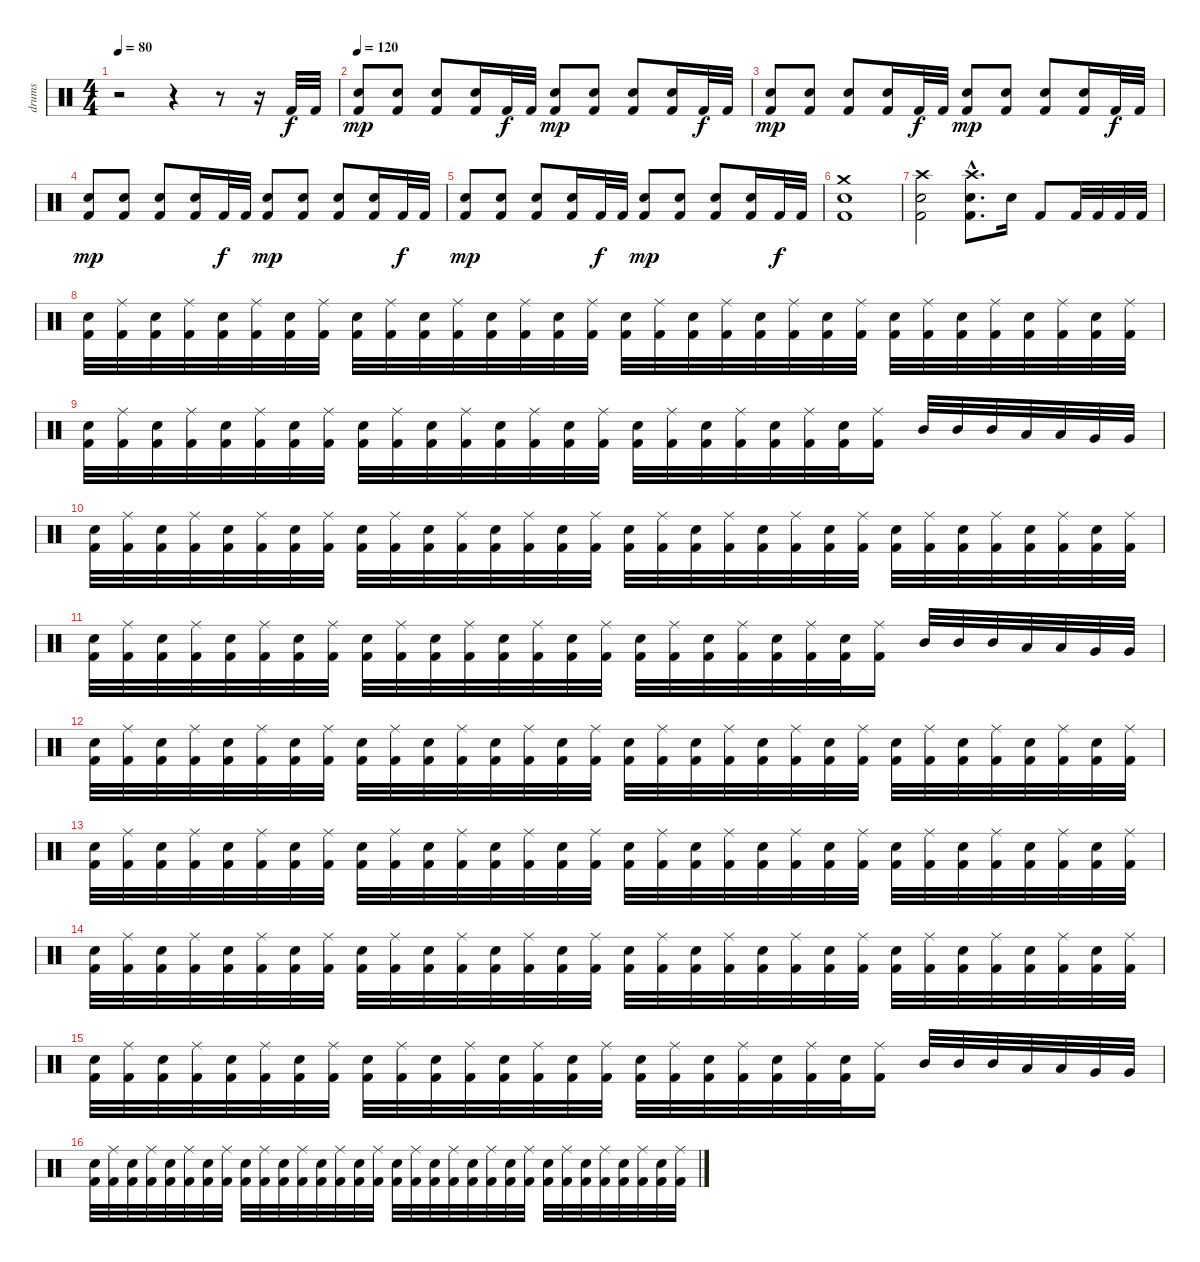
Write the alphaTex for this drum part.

\track ("drums" "drums") {instrument percussion}
\staff {score}
\articulation defaults
\ts (4 4)
\tempo 80
\clef neutral
\ks c
r.2{dy f} r.4 r.8 r.16 "Kick (hit) 2".32 "Kick (hit) 2".32 |
\tempo 120
("Electric Snare (hit)" "Kick (hit) 2").8{dy mp} ("Electric Snare (hit)" "Kick (hit) 2").8 ("Electric Snare (hit)" "Kick (hit) 2").8 ("Electric Snare (hit)" "Kick (hit) 2").16 "Kick (hit) 2".32{dy f} "Kick (hit) 2".32 ("Electric Snare (hit)" "Kick (hit) 2").8{dy mp} ("Electric Snare (hit)" "Kick (hit) 2").8 ("Electric Snare (hit)" "Kick (hit) 2").8 ("Electric Snare (hit)" "Kick (hit) 2").16 "Kick (hit) 2".32{dy f} "Kick (hit) 2".32 |
("Electric Snare (hit)" "Kick (hit) 2").8{dy mp} ("Electric Snare (hit)" "Kick (hit) 2").8 ("Electric Snare (hit)" "Kick (hit) 2").8 ("Electric Snare (hit)" "Kick (hit) 2").16 "Kick (hit) 2".32{dy f} "Kick (hit) 2".32 ("Electric Snare (hit)" "Kick (hit) 2").8{dy mp} ("Electric Snare (hit)" "Kick (hit) 2").8 ("Electric Snare (hit)" "Kick (hit) 2").8 ("Electric Snare (hit)" "Kick (hit) 2").16 "Kick (hit) 2".32{dy f} "Kick (hit) 2".32 |
("Electric Snare (hit)" "Kick (hit) 2").8{dy mp} ("Electric Snare (hit)" "Kick (hit) 2").8 ("Electric Snare (hit)" "Kick (hit) 2").8 ("Electric Snare (hit)" "Kick (hit) 2").16 "Kick (hit) 2".32{dy f} "Kick (hit) 2".32 ("Electric Snare (hit)" "Kick (hit) 2").8{dy mp} ("Electric Snare (hit)" "Kick (hit) 2").8 ("Electric Snare (hit)" "Kick (hit) 2").8 ("Electric Snare (hit)" "Kick (hit) 2").16 "Kick (hit) 2".32{dy f} "Kick (hit) 2".32 |
("Electric Snare (hit)" "Kick (hit) 2").8{dy mp} ("Electric Snare (hit)" "Kick (hit) 2").8 ("Electric Snare (hit)" "Kick (hit) 2").8 ("Electric Snare (hit)" "Kick (hit) 2").16 "Kick (hit) 2".32{dy f} "Kick (hit) 2".32 ("Electric Snare (hit)" "Kick (hit) 2").8{dy mp} ("Electric Snare (hit)" "Kick (hit) 2").8 ("Electric Snare (hit)" "Kick (hit) 2").8 ("Electric Snare (hit)" "Kick (hit) 2").16 "Kick (hit) 2".32{dy f} "Kick (hit) 2".32 |
("Crash medium (hit)" "Electric Snare (hit)" "Kick (hit) 2").1 |
("Crash high (hit)" "Electric Snare (hit)" "Kick (hit) 2").2 ("Crash high (hit)"{hac} "Electric Snare (hit)"{hac} "Kick (hit) 2"{hac}).8{d} "Electric Snare (hit)".16 "Kick (hit) 2".8 "Kick (hit) 2".32 "Kick (hit) 2".32 "Kick (hit) 2".32 "Kick (hit) 2".32 |
("Electric Snare (hit)" "Kick (hit) 2").32 ("Ride (middle)" "Kick (hit) 2").32 ("Electric Snare (hit)" "Kick (hit) 2").32 ("Ride (middle)" "Kick (hit) 2").32 ("Electric Snare (hit)" "Kick (hit) 2").32 ("Ride (middle)" "Kick (hit) 2").32 ("Electric Snare (hit)" "Kick (hit) 2").32 ("Ride (middle)" "Kick (hit) 2").32 ("Electric Snare (hit)" "Kick (hit) 2").32 ("Ride (middle)" "Kick (hit) 2").32 ("Electric Snare (hit)" "Kick (hit) 2").32 ("Ride (middle)" "Kick (hit) 2").32 ("Electric Snare (hit)" "Kick (hit) 2").32 ("Ride (middle)" "Kick (hit) 2").32 ("Electric Snare (hit)" "Kick (hit) 2").32 ("Ride (middle)" "Kick (hit) 2").32 ("Electric Snare (hit)" "Kick (hit) 2").32 ("Ride (middle)" "Kick (hit) 2").32 ("Electric Snare (hit)" "Kick (hit) 2").32 ("Ride (middle)" "Kick (hit) 2").32 ("Electric Snare (hit)" "Kick (hit) 2").32 ("Ride (middle)" "Kick (hit) 2").32 ("Electric Snare (hit)" "Kick (hit) 2").32 ("Ride (middle)" "Kick (hit) 2").32 ("Electric Snare (hit)" "Kick (hit) 2").32 ("Ride (middle)" "Kick (hit) 2").32 ("Electric Snare (hit)" "Kick (hit) 2").32 ("Ride (middle)" "Kick (hit) 2").32 ("Electric Snare (hit)" "Kick (hit) 2").32 ("Ride (middle)" "Kick (hit) 2").32 ("Electric Snare (hit)" "Kick (hit) 2").32 ("Ride (middle)" "Kick (hit) 2").32 |
("Electric Snare (hit)" "Kick (hit) 2").32 ("Ride (middle)" "Kick (hit) 2").32 ("Electric Snare (hit)" "Kick (hit) 2").32 ("Ride (middle)" "Kick (hit) 2").32 ("Electric Snare (hit)" "Kick (hit) 2").32 ("Ride (middle)" "Kick (hit) 2").32 ("Electric Snare (hit)" "Kick (hit) 2").32 ("Ride (middle)" "Kick (hit) 2").32 ("Electric Snare (hit)" "Kick (hit) 2").32 ("Ride (middle)" "Kick (hit) 2").32 ("Electric Snare (hit)" "Kick (hit) 2").32 ("Ride (middle)" "Kick (hit) 2").32 ("Electric Snare (hit)" "Kick (hit) 2").32 ("Ride (middle)" "Kick (hit) 2").32 ("Electric Snare (hit)" "Kick (hit) 2").32 ("Ride (middle)" "Kick (hit) 2").32 ("Electric Snare (hit)" "Kick (hit) 2").32 ("Ride (middle)" "Kick (hit) 2").32 ("Electric Snare (hit)" "Kick (hit) 2").32 ("Ride (middle)" "Kick (hit) 2").32 ("Electric Snare (hit)" "Kick (hit) 2").32 ("Ride (middle)" "Kick (hit) 2").32 ("Electric Snare (hit)" "Kick (hit) 2").32 ("Ride (middle)" "Kick (hit) 2").16 "Mid Tom (hit)".32 "Mid Tom (hit)".32 "Mid Tom (hit)".32 "Low Tom (hit)".32 "Low Tom (hit)".32 "Very Low Tom (hit)".32 "Very Low Tom (hit)".32 |
("Electric Snare (hit)" "Kick (hit) 2").32 ("Ride (middle)" "Kick (hit) 2").32 ("Electric Snare (hit)" "Kick (hit) 2").32 ("Ride (middle)" "Kick (hit) 2").32 ("Electric Snare (hit)" "Kick (hit) 2").32 ("Ride (middle)" "Kick (hit) 2").32 ("Electric Snare (hit)" "Kick (hit) 2").32 ("Ride (middle)" "Kick (hit) 2").32 ("Electric Snare (hit)" "Kick (hit) 2").32 ("Ride (middle)" "Kick (hit) 2").32 ("Electric Snare (hit)" "Kick (hit) 2").32 ("Ride (middle)" "Kick (hit) 2").32 ("Electric Snare (hit)" "Kick (hit) 2").32 ("Ride (middle)" "Kick (hit) 2").32 ("Electric Snare (hit)" "Kick (hit) 2").32 ("Ride (middle)" "Kick (hit) 2").32 ("Electric Snare (hit)" "Kick (hit) 2").32 ("Ride (middle)" "Kick (hit) 2").32 ("Electric Snare (hit)" "Kick (hit) 2").32 ("Ride (middle)" "Kick (hit) 2").32 ("Electric Snare (hit)" "Kick (hit) 2").32 ("Ride (middle)" "Kick (hit) 2").32 ("Electric Snare (hit)" "Kick (hit) 2").32 ("Ride (middle)" "Kick (hit) 2").32 ("Electric Snare (hit)" "Kick (hit) 2").32 ("Ride (middle)" "Kick (hit) 2").32 ("Electric Snare (hit)" "Kick (hit) 2").32 ("Ride (middle)" "Kick (hit) 2").32 ("Electric Snare (hit)" "Kick (hit) 2").32 ("Ride (middle)" "Kick (hit) 2").32 ("Electric Snare (hit)" "Kick (hit) 2").32 ("Ride (middle)" "Kick (hit) 2").32 |
("Electric Snare (hit)" "Kick (hit) 2").32 ("Ride (middle)" "Kick (hit) 2").32 ("Electric Snare (hit)" "Kick (hit) 2").32 ("Ride (middle)" "Kick (hit) 2").32 ("Electric Snare (hit)" "Kick (hit) 2").32 ("Ride (middle)" "Kick (hit) 2").32 ("Electric Snare (hit)" "Kick (hit) 2").32 ("Ride (middle)" "Kick (hit) 2").32 ("Electric Snare (hit)" "Kick (hit) 2").32 ("Ride (middle)" "Kick (hit) 2").32 ("Electric Snare (hit)" "Kick (hit) 2").32 ("Ride (middle)" "Kick (hit) 2").32 ("Electric Snare (hit)" "Kick (hit) 2").32 ("Ride (middle)" "Kick (hit) 2").32 ("Electric Snare (hit)" "Kick (hit) 2").32 ("Ride (middle)" "Kick (hit) 2").32 ("Electric Snare (hit)" "Kick (hit) 2").32 ("Ride (middle)" "Kick (hit) 2").32 ("Electric Snare (hit)" "Kick (hit) 2").32 ("Ride (middle)" "Kick (hit) 2").32 ("Electric Snare (hit)" "Kick (hit) 2").32 ("Ride (middle)" "Kick (hit) 2").32 ("Electric Snare (hit)" "Kick (hit) 2").32 ("Ride (middle)" "Kick (hit) 2").16 "Mid Tom (hit)".32 "Mid Tom (hit)".32 "Mid Tom (hit)".32 "Low Tom (hit)".32 "Low Tom (hit)".32 "Very Low Tom (hit)".32 "Very Low Tom (hit)".32 |
("Electric Snare (hit)" "Kick (hit) 2").32 ("Ride (middle)" "Kick (hit) 2").32 ("Electric Snare (hit)" "Kick (hit) 2").32 ("Ride (middle)" "Kick (hit) 2").32 ("Electric Snare (hit)" "Kick (hit) 2").32 ("Ride (middle)" "Kick (hit) 2").32 ("Electric Snare (hit)" "Kick (hit) 2").32 ("Ride (middle)" "Kick (hit) 2").32 ("Electric Snare (hit)" "Kick (hit) 2").32 ("Ride (middle)" "Kick (hit) 2").32 ("Electric Snare (hit)" "Kick (hit) 2").32 ("Ride (middle)" "Kick (hit) 2").32 ("Electric Snare (hit)" "Kick (hit) 2").32 ("Ride (middle)" "Kick (hit) 2").32 ("Electric Snare (hit)" "Kick (hit) 2").32 ("Ride (middle)" "Kick (hit) 2").32 ("Electric Snare (hit)" "Kick (hit) 2").32 ("Ride (middle)" "Kick (hit) 2").32 ("Electric Snare (hit)" "Kick (hit) 2").32 ("Ride (middle)" "Kick (hit) 2").32 ("Electric Snare (hit)" "Kick (hit) 2").32 ("Ride (middle)" "Kick (hit) 2").32 ("Electric Snare (hit)" "Kick (hit) 2").32 ("Ride (middle)" "Kick (hit) 2").32 ("Electric Snare (hit)" "Kick (hit) 2").32 ("Ride (middle)" "Kick (hit) 2").32 ("Electric Snare (hit)" "Kick (hit) 2").32 ("Ride (middle)" "Kick (hit) 2").32 ("Electric Snare (hit)" "Kick (hit) 2").32 ("Ride (middle)" "Kick (hit) 2").32 ("Electric Snare (hit)" "Kick (hit) 2").32 ("Ride (middle)" "Kick (hit) 2").32 |
("Electric Snare (hit)" "Kick (hit) 2").32 ("Ride (middle)" "Kick (hit) 2").32 ("Electric Snare (hit)" "Kick (hit) 2").32 ("Ride (middle)" "Kick (hit) 2").32 ("Electric Snare (hit)" "Kick (hit) 2").32 ("Ride (middle)" "Kick (hit) 2").32 ("Electric Snare (hit)" "Kick (hit) 2").32 ("Ride (middle)" "Kick (hit) 2").32 ("Electric Snare (hit)" "Kick (hit) 2").32 ("Ride (middle)" "Kick (hit) 2").32 ("Electric Snare (hit)" "Kick (hit) 2").32 ("Ride (middle)" "Kick (hit) 2").32 ("Electric Snare (hit)" "Kick (hit) 2").32 ("Ride (middle)" "Kick (hit) 2").32 ("Electric Snare (hit)" "Kick (hit) 2").32 ("Ride (middle)" "Kick (hit) 2").32 ("Electric Snare (hit)" "Kick (hit) 2").32 ("Ride (middle)" "Kick (hit) 2").32 ("Electric Snare (hit)" "Kick (hit) 2").32 ("Ride (middle)" "Kick (hit) 2").32 ("Electric Snare (hit)" "Kick (hit) 2").32 ("Ride (middle)" "Kick (hit) 2").32 ("Electric Snare (hit)" "Kick (hit) 2").32 ("Ride (middle)" "Kick (hit) 2").32 ("Electric Snare (hit)" "Kick (hit) 2").32 ("Ride (middle)" "Kick (hit) 2").32 ("Electric Snare (hit)" "Kick (hit) 2").32 ("Ride (middle)" "Kick (hit) 2").32 ("Electric Snare (hit)" "Kick (hit) 2").32 ("Ride (middle)" "Kick (hit) 2").32 ("Electric Snare (hit)" "Kick (hit) 2").32 ("Ride (middle)" "Kick (hit) 2").32 |
("Electric Snare (hit)" "Kick (hit) 2").32 ("Ride (middle)" "Kick (hit) 2").32 ("Electric Snare (hit)" "Kick (hit) 2").32 ("Ride (middle)" "Kick (hit) 2").32 ("Electric Snare (hit)" "Kick (hit) 2").32 ("Ride (middle)" "Kick (hit) 2").32 ("Electric Snare (hit)" "Kick (hit) 2").32 ("Ride (middle)" "Kick (hit) 2").32 ("Electric Snare (hit)" "Kick (hit) 2").32 ("Ride (middle)" "Kick (hit) 2").32 ("Electric Snare (hit)" "Kick (hit) 2").32 ("Ride (middle)" "Kick (hit) 2").32 ("Electric Snare (hit)" "Kick (hit) 2").32 ("Ride (middle)" "Kick (hit) 2").32 ("Electric Snare (hit)" "Kick (hit) 2").32 ("Ride (middle)" "Kick (hit) 2").32 ("Electric Snare (hit)" "Kick (hit) 2").32 ("Ride (middle)" "Kick (hit) 2").32 ("Electric Snare (hit)" "Kick (hit) 2").32 ("Ride (middle)" "Kick (hit) 2").32 ("Electric Snare (hit)" "Kick (hit) 2").32 ("Ride (middle)" "Kick (hit) 2").32 ("Electric Snare (hit)" "Kick (hit) 2").32 ("Ride (middle)" "Kick (hit) 2").32 ("Electric Snare (hit)" "Kick (hit) 2").32 ("Ride (middle)" "Kick (hit) 2").32 ("Electric Snare (hit)" "Kick (hit) 2").32 ("Ride (middle)" "Kick (hit) 2").32 ("Electric Snare (hit)" "Kick (hit) 2").32 ("Ride (middle)" "Kick (hit) 2").32 ("Electric Snare (hit)" "Kick (hit) 2").32 ("Ride (middle)" "Kick (hit) 2").32 |
("Electric Snare (hit)" "Kick (hit) 2").32 ("Ride (middle)" "Kick (hit) 2").32 ("Electric Snare (hit)" "Kick (hit) 2").32 ("Ride (middle)" "Kick (hit) 2").32 ("Electric Snare (hit)" "Kick (hit) 2").32 ("Ride (middle)" "Kick (hit) 2").32 ("Electric Snare (hit)" "Kick (hit) 2").32 ("Ride (middle)" "Kick (hit) 2").32 ("Electric Snare (hit)" "Kick (hit) 2").32 ("Ride (middle)" "Kick (hit) 2").32 ("Electric Snare (hit)" "Kick (hit) 2").32 ("Ride (middle)" "Kick (hit) 2").32 ("Electric Snare (hit)" "Kick (hit) 2").32 ("Ride (middle)" "Kick (hit) 2").32 ("Electric Snare (hit)" "Kick (hit) 2").32 ("Ride (middle)" "Kick (hit) 2").32 ("Electric Snare (hit)" "Kick (hit) 2").32 ("Ride (middle)" "Kick (hit) 2").32 ("Electric Snare (hit)" "Kick (hit) 2").32 ("Ride (middle)" "Kick (hit) 2").32 ("Electric Snare (hit)" "Kick (hit) 2").32 ("Ride (middle)" "Kick (hit) 2").32 ("Electric Snare (hit)" "Kick (hit) 2").32 ("Ride (middle)" "Kick (hit) 2").16 "Mid Tom (hit)".32 "Mid Tom (hit)".32 "Mid Tom (hit)".32 "Low Tom (hit)".32 "Low Tom (hit)".32 "Very Low Tom (hit)".32 "Very Low Tom (hit)".32 |
("Electric Snare (hit)" "Kick (hit) 2").32 ("Ride (middle)" "Kick (hit) 2").32 ("Electric Snare (hit)" "Kick (hit) 2").32 ("Ride (middle)" "Kick (hit) 2").32 ("Electric Snare (hit)" "Kick (hit) 2").32 ("Ride (middle)" "Kick (hit) 2").32 ("Electric Snare (hit)" "Kick (hit) 2").32 ("Ride (middle)" "Kick (hit) 2").32 ("Electric Snare (hit)" "Kick (hit) 2").32 ("Ride (middle)" "Kick (hit) 2").32 ("Electric Snare (hit)" "Kick (hit) 2").32 ("Ride (middle)" "Kick (hit) 2").32 ("Electric Snare (hit)" "Kick (hit) 2").32 ("Ride (middle)" "Kick (hit) 2").32 ("Electric Snare (hit)" "Kick (hit) 2").32 ("Ride (middle)" "Kick (hit) 2").32 ("Electric Snare (hit)" "Kick (hit) 2").32 ("Ride (middle)" "Kick (hit) 2").32 ("Electric Snare (hit)" "Kick (hit) 2").32 ("Ride (middle)" "Kick (hit) 2").32 ("Electric Snare (hit)" "Kick (hit) 2").32 ("Ride (middle)" "Kick (hit) 2").32 ("Electric Snare (hit)" "Kick (hit) 2").32 ("Ride (middle)" "Kick (hit) 2").32 ("Electric Snare (hit)" "Kick (hit) 2").32 ("Ride (middle)" "Kick (hit) 2").32 ("Electric Snare (hit)" "Kick (hit) 2").32 ("Ride (middle)" "Kick (hit) 2").32 ("Electric Snare (hit)" "Kick (hit) 2").32 ("Ride (middle)" "Kick (hit) 2").32 ("Electric Snare (hit)" "Kick (hit) 2").32 ("Ride (middle)" "Kick (hit) 2").32
